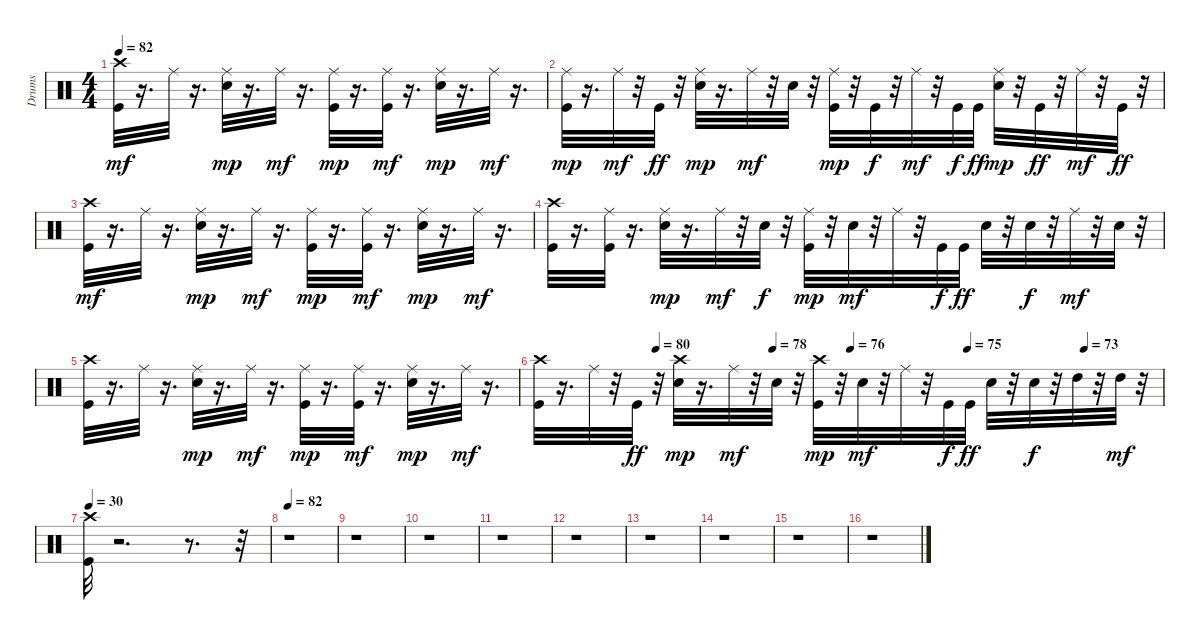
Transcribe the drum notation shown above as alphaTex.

\track ("Drums" "Drums") {instrument percussion}
\staff {score}
\articulation defaults
\ts (4 4)
\tempo 82
\clef neutral
\ks c
("Kick (hit)" "Crash high (hit)").32{dy mf} r.16{d} "Ride (middle)".32 r.16{d} ("Snare (hit) 2" "Ride (middle)").32{dy mp} r.16{d} "Ride (middle)".32{dy mf} r.16{d} ("Kick (hit)" "Ride (middle)").32{dy mp} r.16{d} ("Kick (hit)" "Ride (middle)").32{dy mf} r.16{d} ("Snare (hit) 2" "Ride (middle)").32{dy mp} r.16{d} "Ride (middle)".32{dy mf} r.16{d} |
("Kick (hit)" "Ride (middle)").32{dy mp} r.16{d} "Ride (middle)".32{dy mf} r.32 "Kick (hit)".32{dy ff} r.32 ("Snare (hit) 2" "Ride (middle)").32{dy mp} r.16{d} "Ride (middle)".32{dy mf} r.32 "Snare (hit) 2".32 r.32 ("Kick (hit)" "Ride (middle)").32{dy mp} r.32 "Kick (hit)".32{dy f} r.32 "Ride (middle)".32{dy mf} r.32 "Kick (hit)".32{dy f} "Kick (hit)".32{dy ff} ("Snare (hit) 2" "Ride (middle)").32{dy mp} r.32 "Kick (hit)".32{dy ff} r.32 "Ride (middle)".32{dy mf} r.32 "Kick (hit)".32{dy ff} r.32 |
("Kick (hit)" "Crash high (hit)").32{dy mf} r.16{d} "Ride (middle)".32 r.16{d} ("Snare (hit) 2" "Ride (middle)").32{dy mp} r.16{d} "Ride (middle)".32{dy mf} r.16{d} ("Kick (hit)" "Ride (middle)").32{dy mp} r.16{d} ("Kick (hit)" "Ride (middle)").32{dy mf} r.16{d} ("Snare (hit) 2" "Ride (middle)").32{dy mp} r.16{d} "Ride (middle)".32{dy mf} r.16{d} |
("Kick (hit)" "Crash high (hit)").32 r.16{d} ("Kick (hit)" "Ride (middle)").32 r.16{d} ("Snare (hit) 2" "Ride (middle)").32{dy mp} r.16{d} "Ride (middle)".32{dy mf} r.32 "Snare (hit) 2".32{dy f} r.32 ("Kick (hit)" "Ride (middle)").32{dy mp} r.32 "Snare (hit) 2".32{dy mf} r.32 "Ride (middle)".32 r.32 "Kick (hit)".32{dy f} "Kick (hit)".32{dy ff} "Snare (hit) 2".32 r.32 "Snare (hit) 2".32{dy f} r.32 "Ride (middle)".32{dy mf} r.32 "Snare (hit) 2".32 r.32 |
("Kick (hit)" "Crash high (hit)").32 r.16{d} "Ride (middle)".32 r.16{d} ("Snare (hit) 2" "Ride (middle)").32{dy mp} r.16{d} "Ride (middle)".32{dy mf} r.16{d} ("Kick (hit)" "Ride (middle)").32{dy mp} r.16{d} ("Kick (hit)" "Ride (middle)").32{dy mf} r.16{d} ("Snare (hit) 2" "Ride (middle)").32{dy mp} r.16{d} "Ride (middle)".32{dy mf} r.16{d} |
\tempo (80 0.1875)
\tempo (78 0.375)
\tempo (76 0.5)
\tempo (75 0.6875)
\tempo (73 0.875)
("Kick (hit)" "Crash high (hit)").32 r.16{d} "Ride (middle)".32 r.32 "Kick (hit)".32{dy ff} r.32 ("Snare (hit) 2" "Crash high (hit)").32{dy mp} r.16{d} "Ride (middle)".32{dy mf} r.32 "Snare (hit) 2".32 r.32 ("Kick (hit)" "Crash high (hit)").32{dy mp} r.32 "Snare (hit) 2".32{dy mf} r.32 "Ride (middle)".32 r.32 "Kick (hit)".32{dy f} "Kick (hit)".32{dy ff} "Snare (hit) 2".32 r.32 "Snare (hit) 2".32{dy f} r.32 "High Tom (hit)".32 r.32 "High Tom (hit)".32{dy mf} r.32 |
\tempo 30
("Kick (hit)" "Crash high (hit)").32 r.2{d} r.8{d} r.32 |
\tempo 82
r.1 |
r.1 |
r.1 |
r.1 |
r.1 |
r.1 |
r.1 |
r.1 |
r.1
